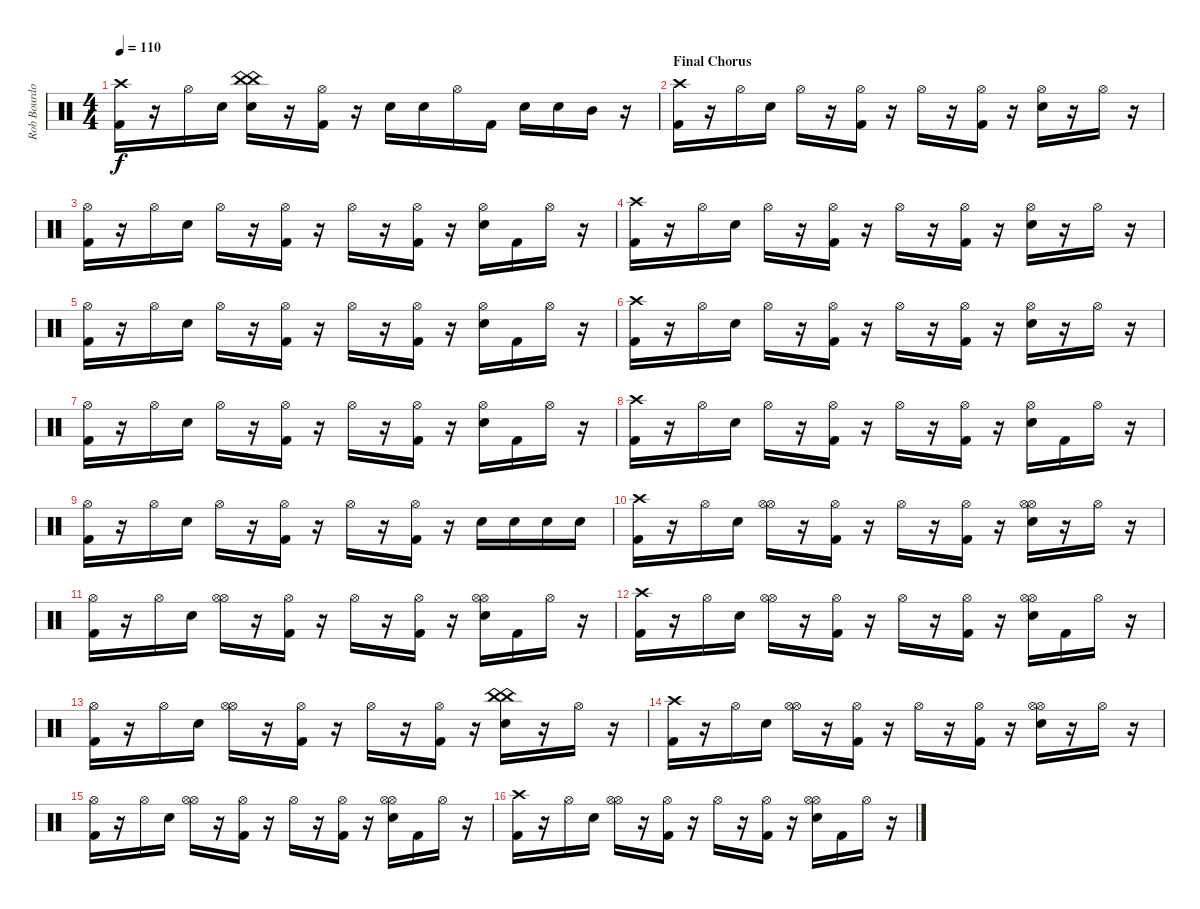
\track ("Rob Bourdon (Drums)" "Rob Bourdo") {instrument percussion}
\staff {score}
\articulation defaults
\ts (4 4)
\tempo 110
\clef neutral
\ks c
("Crash high (hit)" "Kick (hit) 2").16{dy f} r.16 "Hi-Hat (open)".16 "Electric Snare (hit)".16 ("China (hit)" "China (hit)" "Electric Snare (hit)").16 r.16 ("Hi-Hat (open)" "Kick (hit) 2").16 r.16 "Electric Snare (hit)".16 "Electric Snare (hit)".16 "Hi-Hat (open)".16 "Kick (hit) 2".16 "Electric Snare (hit)".16 "Electric Snare (hit)".16 "Mid Tom (hit)".16 r.16 |
\section ("" "Final Chorus")
("Crash high (hit)" "Kick (hit) 2").16 r.16 "Hi-Hat (open)".16 "Electric Snare (hit)".16 "Hi-Hat (open)".16 r.16 ("Hi-Hat (open)" "Kick (hit) 2").16 r.16 "Hi-Hat (open)".16 r.16 ("Hi-Hat (open)" "Kick (hit) 2").16 r.16 ("Hi-Hat (open)" "Electric Snare (hit)").16 r.16 "Hi-Hat (open)".16 r.16 |
("Hi-Hat (open)" "Kick (hit) 2").16 r.16 "Hi-Hat (open)".16 "Electric Snare (hit)".16 "Hi-Hat (open)".16 r.16 ("Hi-Hat (open)" "Kick (hit) 2").16 r.16 "Hi-Hat (open)".16 r.16 ("Hi-Hat (open)" "Kick (hit) 2").16 r.16 ("Hi-Hat (open)" "Electric Snare (hit)").16 "Kick (hit) 2".16 "Hi-Hat (open)".16 r.16 |
("Crash high (hit)" "Kick (hit) 2").16 r.16 "Hi-Hat (open)".16 "Electric Snare (hit)".16 "Hi-Hat (open)".16 r.16 ("Hi-Hat (open)" "Kick (hit) 2").16 r.16 "Hi-Hat (open)".16 r.16 ("Hi-Hat (open)" "Kick (hit) 2").16 r.16 ("Hi-Hat (open)" "Electric Snare (hit)").16 r.16 "Hi-Hat (open)".16 r.16 |
("Hi-Hat (open)" "Kick (hit) 2").16 r.16 "Hi-Hat (open)".16 "Electric Snare (hit)".16 "Hi-Hat (open)".16 r.16 ("Hi-Hat (open)" "Kick (hit) 2").16 r.16 "Hi-Hat (open)".16 r.16 ("Hi-Hat (open)" "Kick (hit) 2").16 r.16 ("Hi-Hat (open)" "Electric Snare (hit)").16 "Kick (hit) 2".16 "Hi-Hat (open)".16 r.16 |
("Crash high (hit)" "Kick (hit) 2").16 r.16 "Hi-Hat (open)".16 "Electric Snare (hit)".16 "Hi-Hat (open)".16 r.16 ("Hi-Hat (open)" "Kick (hit) 2").16 r.16 "Hi-Hat (open)".16 r.16 ("Hi-Hat (open)" "Kick (hit) 2").16 r.16 ("Hi-Hat (open)" "Electric Snare (hit)").16 r.16 "Hi-Hat (open)".16 r.16 |
("Hi-Hat (open)" "Kick (hit) 2").16 r.16 "Hi-Hat (open)".16 "Electric Snare (hit)".16 "Hi-Hat (open)".16 r.16 ("Hi-Hat (open)" "Kick (hit) 2").16 r.16 "Hi-Hat (open)".16 r.16 ("Hi-Hat (open)" "Kick (hit) 2").16 r.16 ("Hi-Hat (open)" "Electric Snare (hit)").16 "Kick (hit) 2".16 "Hi-Hat (open)".16 r.16 |
("Crash high (hit)" "Kick (hit) 2").16 r.16 "Hi-Hat (open)".16 "Electric Snare (hit)".16 "Hi-Hat (open)".16 r.16 ("Hi-Hat (open)" "Kick (hit) 2").16 r.16 "Hi-Hat (open)".16 r.16 ("Hi-Hat (open)" "Kick (hit) 2").16 r.16 ("Hi-Hat (open)" "Electric Snare (hit)").16 "Kick (hit) 2".16 "Hi-Hat (open)".16 r.16 |
("Hi-Hat (open)" "Kick (hit) 2").16 r.16 "Hi-Hat (open)".16 "Electric Snare (hit)".16 "Hi-Hat (open)".16 r.16 ("Hi-Hat (open)" "Kick (hit) 2").16 r.16 "Hi-Hat (open)".16 r.16 ("Hi-Hat (open)" "Kick (hit) 2").16 r.16 "Electric Snare (hit)".16 "Electric Snare (hit)".16 "Electric Snare (hit)".16 "Electric Snare (hit)".16 |
("Crash high (hit)" "Kick (hit) 2").16 r.16 "Hi-Hat (open)".16 "Electric Snare (hit)".16 ("Hi-Hat (open)" "Hi-Hat (open)").16 r.16 ("Hi-Hat (open)" "Kick (hit) 2").16 r.16 "Hi-Hat (open)".16 r.16 ("Hi-Hat (open)" "Kick (hit) 2").16 r.16 ("Hi-Hat (open)" "Hi-Hat (open)" "Electric Snare (hit)").16 r.16 "Hi-Hat (open)".16 r.16 |
("Hi-Hat (open)" "Kick (hit) 2").16 r.16 "Hi-Hat (open)".16 "Electric Snare (hit)".16 ("Hi-Hat (open)" "Hi-Hat (open)").16 r.16 ("Hi-Hat (open)" "Kick (hit) 2").16 r.16 "Hi-Hat (open)".16 r.16 ("Hi-Hat (open)" "Kick (hit) 2").16 r.16 ("Hi-Hat (open)" "Hi-Hat (open)" "Electric Snare (hit)").16 "Kick (hit) 2".16 "Hi-Hat (open)".16 r.16 |
("Crash high (hit)" "Kick (hit) 2").16 r.16 "Hi-Hat (open)".16 "Electric Snare (hit)".16 ("Hi-Hat (open)" "Hi-Hat (open)").16 r.16 ("Hi-Hat (open)" "Kick (hit) 2").16 r.16 "Hi-Hat (open)".16 r.16 ("Hi-Hat (open)" "Kick (hit) 2").16 r.16 ("Hi-Hat (open)" "Hi-Hat (open)" "Electric Snare (hit)").16 "Kick (hit) 2".16 "Hi-Hat (open)".16 r.16 |
("Hi-Hat (open)" "Kick (hit) 2").16 r.16 "Hi-Hat (open)".16 "Electric Snare (hit)".16 ("Hi-Hat (open)" "Hi-Hat (open)").16 r.16 ("Hi-Hat (open)" "Kick (hit) 2").16 r.16 "Hi-Hat (open)".16 r.16 ("Hi-Hat (open)" "Kick (hit) 2").16 r.16 ("China (hit)" "China (hit)" "Electric Snare (hit)").16 r.16 "Hi-Hat (open)".16 r.16 |
("Crash high (hit)" "Kick (hit) 2").16 r.16 "Hi-Hat (open)".16 "Electric Snare (hit)".16 ("Hi-Hat (open)" "Hi-Hat (open)").16 r.16 ("Hi-Hat (open)" "Kick (hit) 2").16 r.16 "Hi-Hat (open)".16 r.16 ("Hi-Hat (open)" "Kick (hit) 2").16 r.16 ("Hi-Hat (open)" "Hi-Hat (open)" "Electric Snare (hit)").16 r.16 "Hi-Hat (open)".16 r.16 |
("Hi-Hat (open)" "Kick (hit) 2").16 r.16 "Hi-Hat (open)".16 "Electric Snare (hit)".16 ("Hi-Hat (open)" "Hi-Hat (open)").16 r.16 ("Hi-Hat (open)" "Kick (hit) 2").16 r.16 "Hi-Hat (open)".16 r.16 ("Hi-Hat (open)" "Kick (hit) 2").16 r.16 ("Hi-Hat (open)" "Hi-Hat (open)" "Electric Snare (hit)").16 "Kick (hit) 2".16 "Hi-Hat (open)".16 r.16 |
("Crash high (hit)" "Kick (hit) 2").16 r.16 "Hi-Hat (open)".16 "Electric Snare (hit)".16 ("Hi-Hat (open)" "Hi-Hat (open)").16 r.16 ("Hi-Hat (open)" "Kick (hit) 2").16 r.16 "Hi-Hat (open)".16 r.16 ("Hi-Hat (open)" "Kick (hit) 2").16 r.16 ("Hi-Hat (open)" "Hi-Hat (open)" "Electric Snare (hit)").16 "Kick (hit) 2".16 "Hi-Hat (open)".16 r.16
